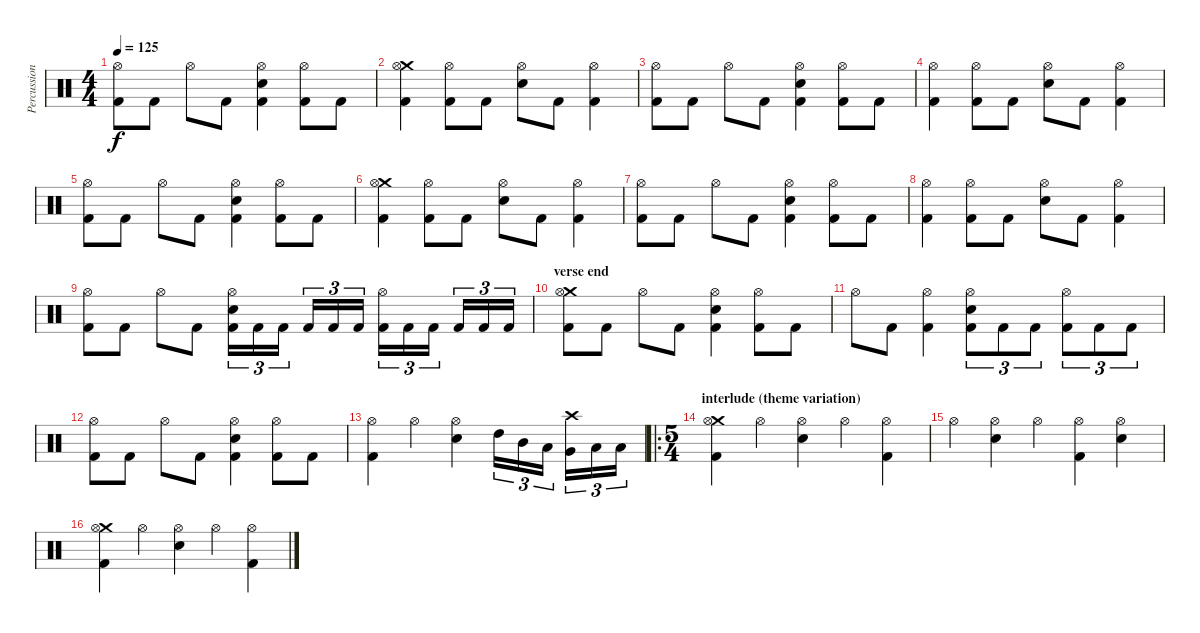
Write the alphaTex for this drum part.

\track ("Percussion" "Percussion") {instrument percussion}
\staff {score}
\articulation defaults
\ts (4 4)
\tempo 125
\clef neutral
\ks c
("Hi-Hat (open)" "Kick (hit) 2").8{dy f} "Kick (hit) 2".8 "Hi-Hat (open)".8 "Kick (hit) 2".8 ("Hi-Hat (open)" "Electric Snare (hit)" "Kick (hit) 2").4 ("Hi-Hat (open)" "Kick (hit) 2").8 "Kick (hit) 2".8 |
("Crash medium (hit)" "Hi-Hat (open)" "Kick (hit) 2").4 ("Hi-Hat (open)" "Kick (hit) 2").8 "Kick (hit) 2".8 ("Hi-Hat (open)" "Electric Snare (hit)").8 "Kick (hit) 2".8 ("Hi-Hat (open)" "Kick (hit) 2").4 |
("Hi-Hat (open)" "Kick (hit) 2").8 "Kick (hit) 2".8 "Hi-Hat (open)".8 "Kick (hit) 2".8 ("Hi-Hat (open)" "Electric Snare (hit)" "Kick (hit) 2").4 ("Hi-Hat (open)" "Kick (hit) 2").8 "Kick (hit) 2".8 |
("Hi-Hat (open)" "Kick (hit) 2").4 ("Hi-Hat (open)" "Kick (hit) 2").8 "Kick (hit) 2".8 ("Hi-Hat (open)" "Electric Snare (hit)").8 "Kick (hit) 2".8 ("Hi-Hat (open)" "Kick (hit) 2").4 |
("Hi-Hat (open)" "Kick (hit) 2").8 "Kick (hit) 2".8 "Hi-Hat (open)".8 "Kick (hit) 2".8 ("Hi-Hat (open)" "Electric Snare (hit)" "Kick (hit) 2").4 ("Hi-Hat (open)" "Kick (hit) 2").8 "Kick (hit) 2".8 |
("Crash medium (hit)" "Hi-Hat (open)" "Kick (hit) 2").4 ("Hi-Hat (open)" "Kick (hit) 2").8 "Kick (hit) 2".8 ("Hi-Hat (open)" "Electric Snare (hit)").8 "Kick (hit) 2".8 ("Hi-Hat (open)" "Kick (hit) 2").4 |
("Hi-Hat (open)" "Kick (hit) 2").8 "Kick (hit) 2".8 "Hi-Hat (open)".8 "Kick (hit) 2".8 ("Hi-Hat (open)" "Electric Snare (hit)" "Kick (hit) 2").4 ("Hi-Hat (open)" "Kick (hit) 2").8 "Kick (hit) 2".8 |
("Hi-Hat (open)" "Kick (hit) 2").4 ("Hi-Hat (open)" "Kick (hit) 2").8 "Kick (hit) 2".8 ("Hi-Hat (open)" "Electric Snare (hit)").8 "Kick (hit) 2".8 ("Hi-Hat (open)" "Kick (hit) 2").4 |
("Hi-Hat (open)" "Kick (hit) 2").8 "Kick (hit) 2".8 "Hi-Hat (open)".8 "Kick (hit) 2".8 ("Hi-Hat (open)" "Electric Snare (hit)" "Kick (hit) 2").16{tu (3 2)} "Kick (hit) 2".16{tu (3 2)} "Kick (hit) 2".16{tu (3 2)} "Kick (hit) 2".16{tu (3 2)} "Kick (hit) 2".16{tu (3 2)} "Kick (hit) 2".16{tu (3 2)} ("Hi-Hat (open)" "Kick (hit) 2").16{tu (3 2)} "Kick (hit) 2".16{tu (3 2)} "Kick (hit) 2".16{tu (3 2)} "Kick (hit) 2".16{tu (3 2)} "Kick (hit) 2".16{tu (3 2)} "Kick (hit) 2".16{tu (3 2)} |
\section ("" "verse end")
("Crash medium (hit)" "Hi-Hat (open)" "Kick (hit) 2").8 "Kick (hit) 2".8 "Hi-Hat (open)".8 "Kick (hit) 2".8 ("Hi-Hat (open)" "Electric Snare (hit)" "Kick (hit) 2").4 ("Hi-Hat (open)" "Kick (hit) 2").8 "Kick (hit) 2".8 |
"Hi-Hat (open)".8 "Kick (hit) 2".8 ("Hi-Hat (open)" "Kick (hit) 2").4 ("Hi-Hat (open)" "Electric Snare (hit)" "Kick (hit) 2").8{tu (3 2)} "Kick (hit) 2".8{tu (3 2)} "Kick (hit) 2".8{tu (3 2)} ("Hi-Hat (open)" "Kick (hit) 2").8{tu (3 2)} "Kick (hit) 2".8{tu (3 2)} "Kick (hit) 2".8{tu (3 2)} |
("Hi-Hat (open)" "Kick (hit) 2").8 "Kick (hit) 2".8 "Hi-Hat (open)".8 "Kick (hit) 2".8 ("Hi-Hat (open)" "Electric Snare (hit)" "Kick (hit) 2").4 ("Hi-Hat (open)" "Kick (hit) 2").8 "Kick (hit) 2".8 |
("Hi-Hat (open)" "Kick (hit) 2").4 "Hi-Hat (open)".4 ("Hi-Hat (open)" "Electric Snare (hit)").4 "High Tom (hit)".16{tu (3 2)} "Mid Tom (hit)".16{tu (3 2)} "Low Tom (hit)".16{tu (3 2)} ("Crash high (hit)" "Very Low Tom (hit)").16{tu (3 2)} "Low Floor Tom (hit)".16{tu (3 2)} "Low Floor Tom (hit)".16{tu (3 2)} |
\ro
\ts (5 4)
\section ("" "interlude (theme variation)")
("Crash medium (hit)" "Hi-Hat (open)" "Kick (hit) 2").4 "Hi-Hat (open)".4 ("Hi-Hat (open)" "Electric Snare (hit)").4 "Hi-Hat (open)".4 ("Hi-Hat (open)" "Kick (hit) 2").4 |
"Hi-Hat (open)".4 ("Hi-Hat (open)" "Electric Snare (hit)").4 "Hi-Hat (open)".4 ("Hi-Hat (open)" "Kick (hit) 2").4 ("Hi-Hat (open)" "Electric Snare (hit)").4 |
("Crash medium (hit)" "Hi-Hat (open)" "Kick (hit) 2").4 "Hi-Hat (open)".4 ("Hi-Hat (open)" "Electric Snare (hit)").4 "Hi-Hat (open)".4 ("Hi-Hat (open)" "Kick (hit) 2").4
